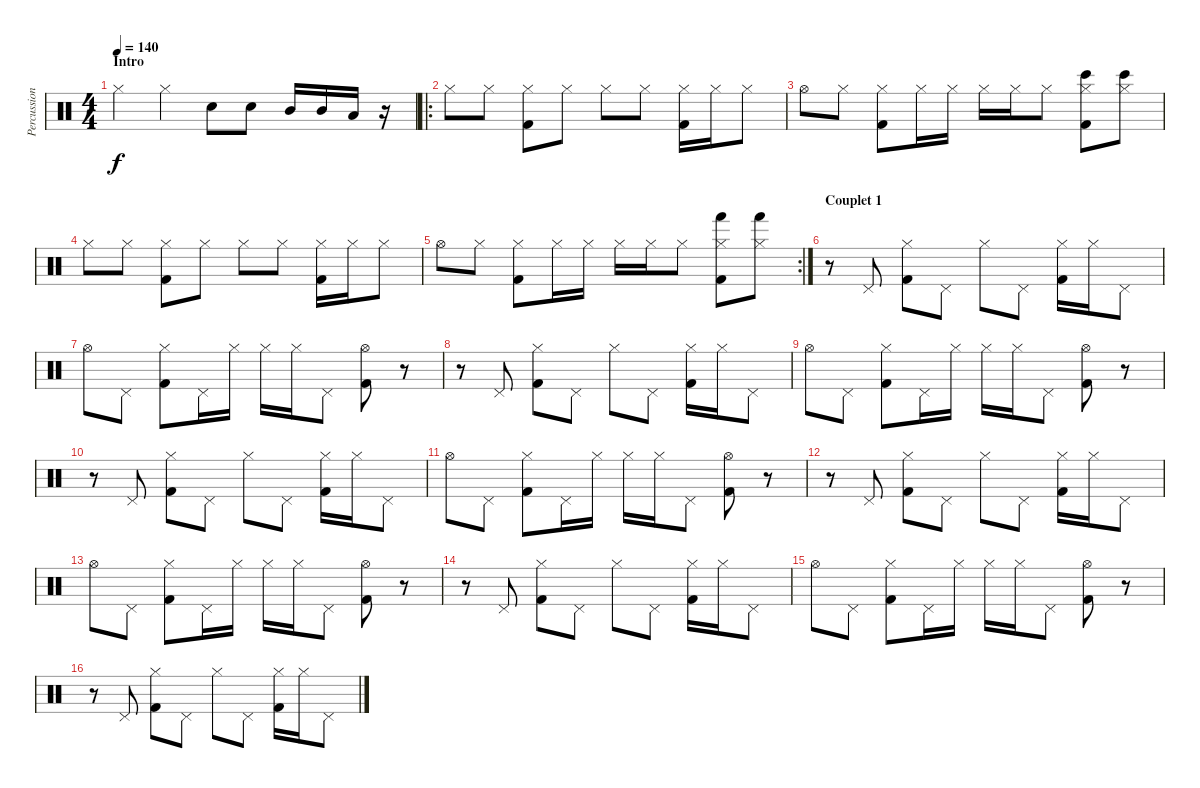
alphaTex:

\track ("Percussions" "Percussion") {instrument percussion}
\staff {score}
\articulation defaults
\ts (4 4)
\section ("" "Intro")
\tempo 140
\clef neutral
\ks c "Hi-Hat (closed)".4{dy f} "Hi-Hat (closed)".4 "Electric Snare (hit)".8 "Electric Snare (hit)".8 "Mid Tom (hit)".16 "Mid Tom (hit)".16 "Low Tom (hit)".16
r.16 |
\ro "Hi-Hat (closed)".8 "Hi-Hat (closed)".8
("Hi-Hat (closed)" "Kick (hit) 2").8 "Hi-Hat (closed)".8 "Hi-Hat (closed)".8 "Hi-Hat (closed)".8 ("Hi-Hat (closed)" "Kick (hit) 2").16 "Hi-Hat (closed)".16 "Hi-Hat (closed)".8 |
"Hi-Hat (open)".8 "Hi-Hat (closed)".8 ("Hi-Hat (closed)" "Kick (hit) 2").8 "Hi-Hat (closed)".16 "Hi-Hat (closed)".16 "Hi-Hat (closed)".16 "Hi-Hat (closed)".16 "Hi-Hat (closed)".8 ("Hi-Hat (closed)" "Bongo High (hit)" "Kick (hit) 2").8 ("Hi-Hat (closed)" "Bongo High (hit)").8 |
"Hi-Hat (closed)".8 "Hi-Hat (closed)".8 ("Hi-Hat (closed)" "Kick (hit) 2").8 "Hi-Hat (closed)".8 "Hi-Hat (closed)".8 "Hi-Hat (closed)".8 ("Hi-Hat (closed)" "Kick (hit) 2").16 "Hi-Hat (closed)".16 "Hi-Hat (closed)".8 |
\rc 2 "Hi-Hat (open)".8 "Hi-Hat (closed)".8
("Hi-Hat (closed)" "Kick (hit) 2").8 "Hi-Hat (closed)".16 "Hi-Hat (closed)".16 "Hi-Hat (closed)".16 "Hi-Hat (closed)".16 "Hi-Hat (closed)".8 ("Hi-Hat (closed)" "Hand (hit)" "Kick (hit) 2").8 ("Hi-Hat (closed)" "Hand (hit)").8 |
\section ("" "Couplet 1")
r.8 "Pedal Hi-Hat (hit)".8 ("Hi-Hat (closed)" "Kick (hit) 2").8 "Pedal Hi-Hat (hit)".8 "Hi-Hat (closed)".8 "Pedal Hi-Hat (hit)".8 ("Hi-Hat (closed)" "Kick (hit) 2").16 "Hi-Hat (closed)".16 "Pedal Hi-Hat (hit)".8 |
"Hi-Hat (open)".8 "Pedal Hi-Hat (hit)".8 ("Hi-Hat (closed)" "Kick (hit) 2").8 "Pedal Hi-Hat (hit)".16 "Hi-Hat (closed)".16 "Hi-Hat (closed)".16 "Hi-Hat (closed)".16 "Pedal Hi-Hat (hit)".8 ("Hi-Hat (open)" "Kick (hit) 2").8 r.8 |
r.8 "Pedal Hi-Hat (hit)".8 ("Hi-Hat (closed)" "Kick (hit) 2").8 "Pedal Hi-Hat (hit)".8 "Hi-Hat (closed)".8 "Pedal Hi-Hat (hit)".8 ("Hi-Hat (closed)" "Kick (hit) 2").16 "Hi-Hat (closed)".16 "Pedal Hi-Hat (hit)".8 |
"Hi-Hat (open)".8 "Pedal Hi-Hat (hit)".8 ("Hi-Hat (closed)" "Kick (hit) 2").8 "Pedal Hi-Hat (hit)".16 "Hi-Hat (closed)".16 "Hi-Hat (closed)".16 "Hi-Hat (closed)".16 "Pedal Hi-Hat (hit)".8 ("Hi-Hat (open)" "Kick (hit) 2").8 r.8 |
r.8 "Pedal Hi-Hat (hit)".8 ("Hi-Hat (closed)" "Kick (hit) 2").8 "Pedal Hi-Hat (hit)".8 "Hi-Hat (closed)".8 "Pedal Hi-Hat (hit)".8 ("Hi-Hat (closed)" "Kick (hit) 2").16 "Hi-Hat (closed)".16 "Pedal Hi-Hat (hit)".8 |
"Hi-Hat (open)".8 "Pedal Hi-Hat (hit)".8 ("Hi-Hat (closed)" "Kick (hit) 2").8 "Pedal Hi-Hat (hit)".16 "Hi-Hat (closed)".16 "Hi-Hat (closed)".16 "Hi-Hat (closed)".16 "Pedal Hi-Hat (hit)".8 ("Hi-Hat (open)" "Kick (hit) 2").8 r.8 |
r.8 "Pedal Hi-Hat (hit)".8 ("Hi-Hat (closed)" "Kick (hit) 2").8 "Pedal Hi-Hat (hit)".8 "Hi-Hat (closed)".8 "Pedal Hi-Hat (hit)".8 ("Hi-Hat (closed)" "Kick (hit) 2").16 "Hi-Hat (closed)".16 "Pedal Hi-Hat (hit)".8 |
"Hi-Hat (open)".8 "Pedal Hi-Hat (hit)".8 ("Hi-Hat (closed)" "Kick (hit) 2").8 "Pedal Hi-Hat (hit)".16 "Hi-Hat (closed)".16 "Hi-Hat (closed)".16 "Hi-Hat (closed)".16 "Pedal Hi-Hat (hit)".8 ("Hi-Hat (open)" "Kick (hit) 2").8 r.8 |
r.8 "Pedal Hi-Hat (hit)".8 ("Hi-Hat (closed)" "Kick (hit) 2").8 "Pedal Hi-Hat (hit)".8 "Hi-Hat (closed)".8 "Pedal Hi-Hat (hit)".8 ("Hi-Hat (closed)" "Kick (hit) 2").16 "Hi-Hat (closed)".16 "Pedal Hi-Hat (hit)".8 |
"Hi-Hat (open)".8 "Pedal Hi-Hat (hit)".8 ("Hi-Hat (closed)" "Kick (hit) 2").8 "Pedal Hi-Hat (hit)".16 "Hi-Hat (closed)".16 "Hi-Hat (closed)".16 "Hi-Hat (closed)".16 "Pedal Hi-Hat (hit)".8 ("Hi-Hat (open)" "Kick (hit) 2").8 r.8 |
r.8 "Pedal Hi-Hat (hit)".8 ("Hi-Hat (closed)" "Kick (hit) 2").8 "Pedal Hi-Hat (hit)".8 "Hi-Hat (closed)".8 "Pedal Hi-Hat (hit)".8 ("Hi-Hat (closed)" "Kick (hit) 2").16 "Hi-Hat (closed)".16 "Pedal Hi-Hat (hit)".8
